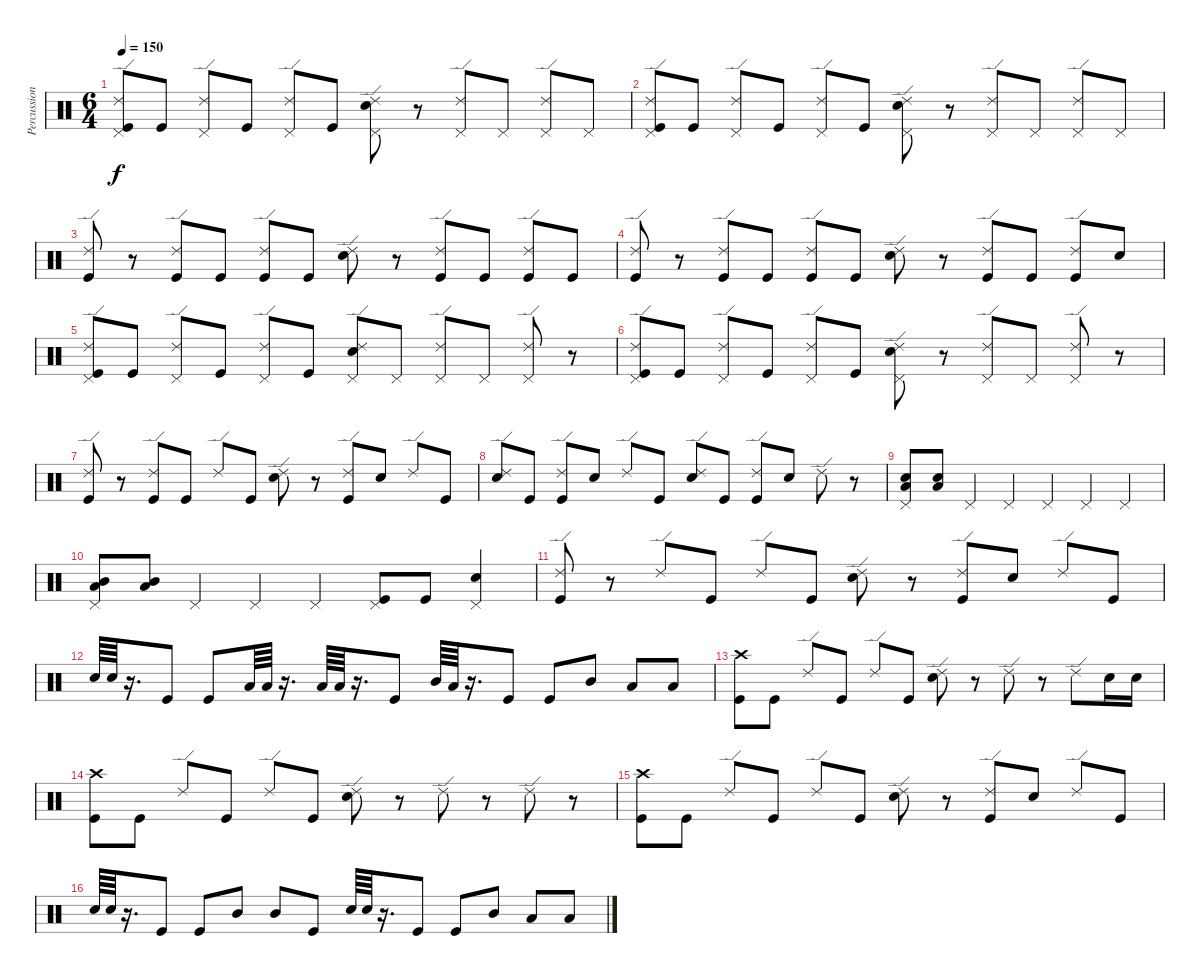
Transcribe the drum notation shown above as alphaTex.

\track ("Percussion" "Percussion") {instrument percussion}
\staff {score}
\articulation defaults
\ts (6 4)
\tempo 150
\clef neutral
\ks c
("Ride (edge) 2" "Pedal Hi-Hat (hit)" "Kick (hit)").8{dy f} "Kick (hit)".8 ("Ride (edge) 2" "Pedal Hi-Hat (hit)").8 "Kick (hit)".8 ("Ride (edge) 2" "Pedal Hi-Hat (hit)").8 "Kick (hit)".8 ("Ride (edge) 2" "Pedal Hi-Hat (hit)" "Snare (hit) 2").8 r.8 ("Ride (edge) 2" "Pedal Hi-Hat (hit)").8 "Pedal Hi-Hat (hit)".8 ("Ride (edge) 2" "Pedal Hi-Hat (hit)").8 "Pedal Hi-Hat (hit)".8 |
("Ride (edge) 2" "Pedal Hi-Hat (hit)" "Kick (hit)").8 "Kick (hit)".8 ("Ride (edge) 2" "Pedal Hi-Hat (hit)").8 "Kick (hit)".8 ("Ride (edge) 2" "Pedal Hi-Hat (hit)").8 "Kick (hit)".8 ("Ride (edge) 2" "Pedal Hi-Hat (hit)" "Snare (hit) 2").8 r.8 ("Ride (edge) 2" "Pedal Hi-Hat (hit)").8 "Pedal Hi-Hat (hit)".8 ("Ride (edge) 2" "Pedal Hi-Hat (hit)").8 "Pedal Hi-Hat (hit)".8 |
("Ride (edge) 2" "Kick (hit)").8 r.8 ("Ride (edge) 2" "Kick (hit)").8 "Kick (hit)".8 ("Ride (edge) 2" "Kick (hit)").8 "Kick (hit)".8 ("Ride (edge) 2" "Snare (hit) 2").8 r.8 ("Ride (edge) 2" "Kick (hit)").8 "Kick (hit)".8 ("Ride (edge) 2" "Kick (hit)").8 "Kick (hit)".8 |
("Ride (edge) 2" "Kick (hit)").8 r.8 ("Ride (edge) 2" "Kick (hit)").8 "Kick (hit)".8 ("Ride (edge) 2" "Kick (hit)").8 "Kick (hit)".8 ("Ride (edge) 2" "Snare (hit) 2").8 r.8 ("Ride (edge) 2" "Kick (hit)").8 "Kick (hit)".8 ("Ride (edge) 2" "Kick (hit)").8 "Snare (hit) 2".8 |
("Ride (edge) 2" "Pedal Hi-Hat (hit)" "Kick (hit)").8 "Kick (hit)".8 ("Ride (edge) 2" "Pedal Hi-Hat (hit)").8 "Kick (hit)".8 ("Ride (edge) 2" "Pedal Hi-Hat (hit)").8 "Kick (hit)".8 ("Ride (edge) 2" "Pedal Hi-Hat (hit)" "Snare (hit) 2").8 "Pedal Hi-Hat (hit)".8 ("Ride (edge) 2" "Pedal Hi-Hat (hit)").8 "Pedal Hi-Hat (hit)".8 ("Ride (edge) 2" "Pedal Hi-Hat (hit)").8 r.8 |
("Ride (edge) 2" "Pedal Hi-Hat (hit)" "Kick (hit)").8 "Kick (hit)".8 ("Ride (edge) 2" "Pedal Hi-Hat (hit)").8 "Kick (hit)".8 ("Ride (edge) 2" "Pedal Hi-Hat (hit)").8 "Kick (hit)".8 ("Ride (edge) 2" "Pedal Hi-Hat (hit)" "Snare (hit) 2").8 r.8 ("Ride (edge) 2" "Pedal Hi-Hat (hit)").8 "Pedal Hi-Hat (hit)".8 ("Ride (edge) 2" "Pedal Hi-Hat (hit)").8 r.8 |
("Ride (edge) 2" "Kick (hit)").8 r.8 ("Ride (edge) 2" "Kick (hit)").8 "Kick (hit)".8 "Ride (edge) 2".8 "Kick (hit)".8 ("Ride (edge) 2" "Snare (hit) 2").8 r.8 ("Ride (edge) 2" "Kick (hit)").8 "Snare (hit) 2".8 "Ride (edge) 2".8 "Kick (hit)".8 |
("Ride (edge) 2" "Snare (hit) 2").8 "Kick (hit)".8 ("Ride (edge) 2" "Kick (hit)").8 "Snare (hit) 2".8 "Ride (edge) 2".8 "Kick (hit)".8 ("Ride (edge) 2" "Snare (hit) 2").8 "Kick (hit)".8 ("Ride (edge) 2" "Kick (hit)").8 "Snare (hit) 2".8 "Ride (edge) 2".8 r.8 |
("Pedal Hi-Hat (hit)" "Low Floor Tom (hit)" "Snare (hit) 2").8 ("Low Floor Tom (hit)" "Snare (hit) 2").8 "Pedal Hi-Hat (hit)".4 "Pedal Hi-Hat (hit)".4 "Pedal Hi-Hat (hit)".4 "Pedal Hi-Hat (hit)".4 "Pedal Hi-Hat (hit)".4 |
("Pedal Hi-Hat (hit)" "Mid Tom (hit)" "Low Tom (hit)").8 ("Mid Tom (hit)" "Low Tom (hit)").8 "Pedal Hi-Hat (hit)".4 "Pedal Hi-Hat (hit)".4 "Pedal Hi-Hat (hit)".4 ("Pedal Hi-Hat (hit)" "Kick (hit)").8 "Kick (hit)".8 ("Pedal Hi-Hat (hit)" "Snare (hit) 2").4 |
("Ride (edge) 2" "Kick (hit)").8 r.8 "Ride (edge) 2".8 "Kick (hit)".8 "Ride (edge) 2".8 "Kick (hit)".8 ("Ride (edge) 2" "Snare (hit) 2").8 r.8 ("Ride (edge) 2" "Kick (hit)").8 "Snare (hit) 2".8 "Ride (edge) 2".8 "Kick (hit)".8 |
"Snare (hit) 2".64 "Snare (hit) 2".64 r.16{d} "Kick (hit)".8 "Kick (hit)".8 "Low Tom (hit)".64 "Low Floor Tom (hit)".64 r.16{d} "Low Tom (hit)".64 "Low Floor Tom (hit)".64 r.16{d} "Kick (hit)".8 "Mid Tom (hit)".64 "Low Tom (hit)".64 r.16{d} "Kick (hit)".8 "Kick (hit)".8 "Mid Tom (hit)".8 "Low Tom (hit)".8 "Low Tom (hit)".8 |
("Crash high (hit)" "Kick (hit)").8 "Kick (hit)".8 "Ride (edge) 2".8 "Kick (hit)".8 "Ride (edge) 2".8 "Kick (hit)".8 ("Ride (edge) 2" "Snare (hit) 2").8 r.8 "Ride (edge) 2".8 r.8 "Ride (edge) 2".8 "Snare (hit) 2".16 "Snare (hit) 2".16 |
("Crash high (hit)" "Kick (hit)").8 "Kick (hit)".8 "Ride (edge) 2".8 "Kick (hit)".8 "Ride (edge) 2".8 "Kick (hit)".8 ("Ride (edge) 2" "Snare (hit) 2").8 r.8 "Ride (edge) 2".8 r.8 "Ride (edge) 2".8 r.8 |
("Crash high (hit)" "Kick (hit)").8 "Kick (hit)".8 "Ride (edge) 2".8 "Kick (hit)".8 "Ride (edge) 2".8 "Kick (hit)".8 ("Ride (edge) 2" "Snare (hit) 2").8 r.8 ("Ride (edge) 2" "Kick (hit)").8 "Snare (hit) 2".8 "Ride (edge) 2".8 "Kick (hit)".8 |
"Snare (hit) 2".64 "Snare (hit) 2".64 r.16{d} "Kick (hit)".8 "Kick (hit)".8 "Mid Tom (hit)".8 "Mid Tom (hit)".8 "Kick (hit)".8 "Snare (hit) 2".64 "Snare (hit) 2".64 r.16{d} "Kick (hit)".8 "Kick (hit)".8 "Mid Tom (hit)".8 "Low Tom (hit)".8 "Low Tom (hit)".8
